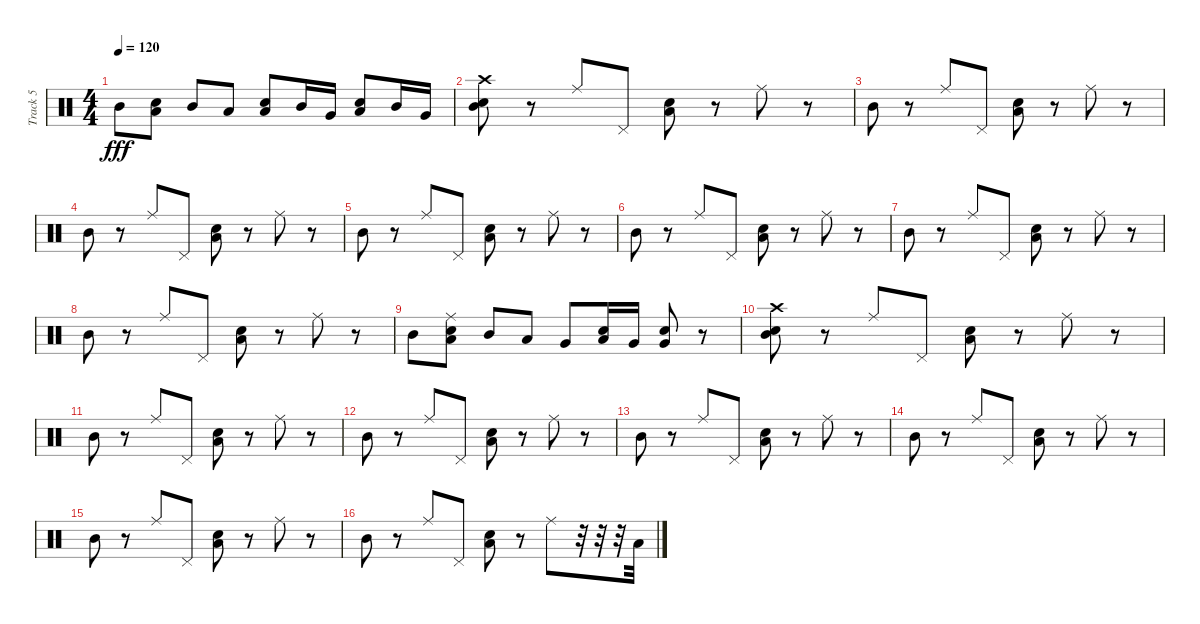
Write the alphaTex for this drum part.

\track ("Track 5" "Track 5") {instrument percussion}
\staff {score}
\articulation defaults
\ts (4 4)
\tempo 120
\clef neutral
\ks c "Mid Tom (hit)".8{dy fff}
("Low Tom (hit)" "Snare (hit) 2").8 "Mid Tom (hit)".8 "Low Tom (hit)".8 ("Low Tom (hit)" "Snare (hit) 2").8 "Mid Tom (hit)".16 "Very Low Tom (hit)".16 ("Low Tom (hit)" "Electric Snare (hit)").8 "Mid Tom (hit)".16 "Very Low Tom (hit)".16 |
("Mid Tom (hit)" "Electric Snare (hit)" "Crash high (hit)").8 r.8 "Ride (middle)".8 "Pedal Hi-Hat (hit)".8 ("Low Tom (hit)" "Snare (hit) 2").8 r.8 "Ride (middle)".8 r.8 |
"Mid Tom (hit)".8 r.8 "Ride (middle)".8 "Pedal Hi-Hat (hit)".8 ("Low Tom (hit)" "Snare (hit) 2").8 r.8 "Ride (middle)".8 r.8 |
"Mid Tom (hit)".8 r.8 "Ride (middle)".8 "Pedal Hi-Hat (hit)".8 ("Low Tom (hit)" "Snare (hit) 2").8 r.8 "Ride (middle)".8 r.8 |
"Mid Tom (hit)".8 r.8 "Ride (middle)".8 "Pedal Hi-Hat (hit)".8 ("Low Tom (hit)" "Snare (hit) 2").8 r.8 "Ride (middle)".8 r.8 |
"Mid Tom (hit)".8 r.8 "Ride (middle)".8 "Pedal Hi-Hat (hit)".8 ("Low Tom (hit)" "Snare (hit) 2").8 r.8 "Ride (middle)".8 r.8 |
"Mid Tom (hit)".8 r.8 "Ride (middle)".8 "Pedal Hi-Hat (hit)".8 ("Low Tom (hit)" "Snare (hit) 2").8 r.8 "Ride (middle)".8 r.8 |
"Mid Tom (hit)".8 r.8 "Ride (middle)".8 "Pedal Hi-Hat (hit)".8 ("Low Tom (hit)" "Snare (hit) 2").8 r.8 "Ride (middle)".8 r.8 |
"Mid Tom (hit)".8 ("Low Tom (hit)" "Electric Snare (hit)" "Ride (middle)").8 "Mid Tom (hit)".8 "Low Tom (hit)".8 "Very Low Tom (hit)".8 ("Low Tom (hit)" "Electric Snare (hit)").16 "Very Low Tom (hit)".16 ("Snare (hit) 2" "Very Low Tom (hit)").8 r.8 |
("Mid Tom (hit)" "Electric Snare (hit)" "Crash high (hit)").8 r.8 "Ride (middle)".8 "Pedal Hi-Hat (hit)".8 ("Low Tom (hit)" "Snare (hit) 2").8 r.8 "Ride (middle)".8 r.8 |
"Mid Tom (hit)".8 r.8 "Ride (middle)".8 "Pedal Hi-Hat (hit)".8 ("Low Tom (hit)" "Snare (hit) 2").8 r.8 "Ride (middle)".8 r.8 |
"Mid Tom (hit)".8 r.8 "Ride (middle)".8 "Pedal Hi-Hat (hit)".8 ("Low Tom (hit)" "Snare (hit) 2").8 r.8 "Ride (middle)".8 r.8 |
"Mid Tom (hit)".8 r.8 "Ride (middle)".8 "Pedal Hi-Hat (hit)".8 ("Low Tom (hit)" "Snare (hit) 2").8 r.8 "Ride (middle)".8 r.8 |
"Mid Tom (hit)".8 r.8 "Ride (middle)".8 "Pedal Hi-Hat (hit)".8 ("Low Tom (hit)" "Snare (hit) 2").8 r.8 "Ride (middle)".8 r.8 |
"Mid Tom (hit)".8 r.8 "Ride (middle)".8 "Pedal Hi-Hat (hit)".8 ("Low Tom (hit)" "Snare (hit) 2").8 r.8 "Ride (middle)".8 r.8 |
"Mid Tom (hit)".8 r.8 "Ride (middle)".8 "Pedal Hi-Hat (hit)".8 ("Low Tom (hit)" "Snare (hit) 2").8 r.8 "Ride (middle)".8 r.32 r.32 r.32 "Low Tom (hit)".32
